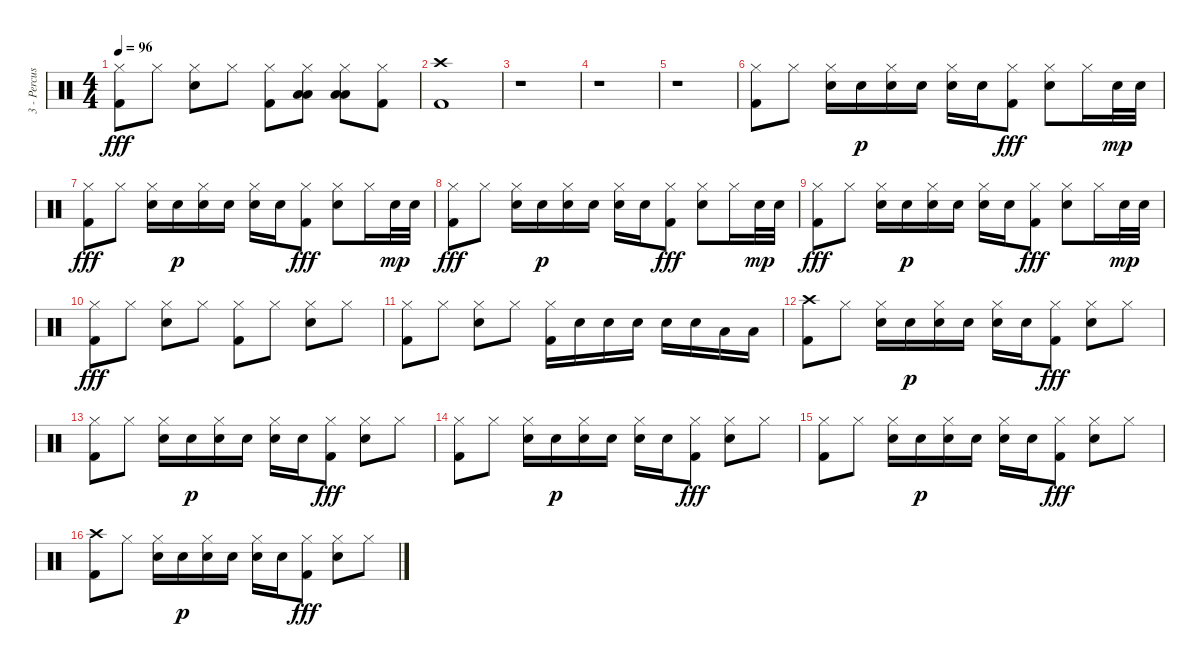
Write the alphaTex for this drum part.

\track ("3 - Percussion" "3 - Percus") {instrument percussion}
\staff {score}
\articulation defaults
\ts (4 4)
\tempo 96
\clef neutral
\ks c
("Hi-Hat (closed)" "Kick (hit) 2").8{dy fff} "Hi-Hat (closed)".8 ("Hi-Hat (closed)" "Snare (hit) 2").8 "Hi-Hat (closed)".8 ("Hi-Hat (closed)" "Kick (hit) 2").8 ("Hi-Hat (closed)" "Low Floor Tom (hit)" "Low Tom (hit)").8 ("Hi-Hat (closed)" "Low Floor Tom (hit)" "Low Tom (hit)").8 ("Hi-Hat (closed)" "Kick (hit) 2").8 |
("Crash high (hit)" "Kick (hit) 2").1 |
r.1 |
r.1 |
r.1 |
("Hi-Hat (closed)" "Kick (hit) 2").8 "Hi-Hat (closed)".8 ("Hi-Hat (closed)" "Snare (hit) 2").16 "Snare (hit) 2".16{dy p} ("Hi-Hat (closed)" "Snare (hit) 2").16 "Snare (hit) 2".16 ("Hi-Hat (closed)" "Snare (hit) 2").16 "Snare (hit) 2".16 ("Hi-Hat (closed)" "Kick (hit) 2").8{dy fff} ("Hi-Hat (closed)" "Snare (hit) 2").8 "Hi-Hat (closed)".16 "Snare (hit) 2".32{dy mp} "Snare (hit) 2".32 |
("Hi-Hat (closed)" "Kick (hit) 2").8{dy fff} "Hi-Hat (closed)".8 ("Hi-Hat (closed)" "Snare (hit) 2").16 "Snare (hit) 2".16{dy p} ("Hi-Hat (closed)" "Snare (hit) 2").16 "Snare (hit) 2".16 ("Hi-Hat (closed)" "Snare (hit) 2").16 "Snare (hit) 2".16 ("Hi-Hat (closed)" "Kick (hit) 2").8{dy fff} ("Hi-Hat (closed)" "Snare (hit) 2").8 "Hi-Hat (closed)".16 "Snare (hit) 2".32{dy mp} "Snare (hit) 2".32 |
("Hi-Hat (closed)" "Kick (hit) 2").8{dy fff} "Hi-Hat (closed)".8 ("Hi-Hat (closed)" "Snare (hit) 2").16 "Snare (hit) 2".16{dy p} ("Hi-Hat (closed)" "Snare (hit) 2").16 "Snare (hit) 2".16 ("Hi-Hat (closed)" "Snare (hit) 2").16 "Snare (hit) 2".16 ("Hi-Hat (closed)" "Kick (hit) 2").8{dy fff} ("Hi-Hat (closed)" "Snare (hit) 2").8 "Hi-Hat (closed)".16 "Snare (hit) 2".32{dy mp} "Snare (hit) 2".32 |
("Hi-Hat (closed)" "Kick (hit) 2").8{dy fff} "Hi-Hat (closed)".8 ("Hi-Hat (closed)" "Snare (hit) 2").16 "Snare (hit) 2".16{dy p} ("Hi-Hat (closed)" "Snare (hit) 2").16 "Snare (hit) 2".16 ("Hi-Hat (closed)" "Snare (hit) 2").16 "Snare (hit) 2".16 ("Hi-Hat (closed)" "Kick (hit) 2").8{dy fff} ("Hi-Hat (closed)" "Snare (hit) 2").8 "Hi-Hat (closed)".16 "Snare (hit) 2".32{dy mp} "Snare (hit) 2".32 |
("Hi-Hat (closed)" "Kick (hit) 2").8{dy fff} "Hi-Hat (closed)".8 ("Hi-Hat (closed)" "Snare (hit) 2").8 "Hi-Hat (closed)".8 ("Hi-Hat (closed)" "Kick (hit) 2").8 "Hi-Hat (closed)".8 ("Hi-Hat (closed)" "Snare (hit) 2").8 "Hi-Hat (closed)".8 |
("Hi-Hat (closed)" "Kick (hit) 2").8 "Hi-Hat (closed)".8 ("Hi-Hat (closed)" "Snare (hit) 2").8 "Hi-Hat (closed)".8 ("Hi-Hat (closed)" "Kick (hit) 2").16 "Snare (hit) 2".16 "Snare (hit) 2".16 "Snare (hit) 2".16 "Snare (hit) 2".16 "Snare (hit) 2".16 "Low Floor Tom (hit)".16 "Low Floor Tom (hit)".16 |
("Crash high (hit)" "Kick (hit) 2").8 "Hi-Hat (closed)".8 ("Hi-Hat (closed)" "Snare (hit) 2").16 "Snare (hit) 2".16{dy p} ("Hi-Hat (closed)" "Snare (hit) 2").16 "Snare (hit) 2".16 ("Hi-Hat (closed)" "Snare (hit) 2").16 "Snare (hit) 2".16 ("Hi-Hat (closed)" "Kick (hit) 2").8{dy fff} ("Hi-Hat (closed)" "Snare (hit) 2").8 "Hi-Hat (closed)".8 |
("Hi-Hat (closed)" "Kick (hit) 2").8 "Hi-Hat (closed)".8 ("Hi-Hat (closed)" "Snare (hit) 2").16 "Snare (hit) 2".16{dy p} ("Hi-Hat (closed)" "Snare (hit) 2").16 "Snare (hit) 2".16 ("Hi-Hat (closed)" "Snare (hit) 2").16 "Snare (hit) 2".16 ("Hi-Hat (closed)" "Kick (hit) 2").8{dy fff} ("Hi-Hat (closed)" "Snare (hit) 2").8 "Hi-Hat (closed)".8 |
("Hi-Hat (closed)" "Kick (hit) 2").8 "Hi-Hat (closed)".8 ("Hi-Hat (closed)" "Snare (hit) 2").16 "Snare (hit) 2".16{dy p} ("Hi-Hat (closed)" "Snare (hit) 2").16 "Snare (hit) 2".16 ("Hi-Hat (closed)" "Snare (hit) 2").16 "Snare (hit) 2".16 ("Hi-Hat (closed)" "Kick (hit) 2").8{dy fff} ("Hi-Hat (closed)" "Snare (hit) 2").8 "Hi-Hat (closed)".8 |
("Hi-Hat (closed)" "Kick (hit) 2").8 "Hi-Hat (closed)".8 ("Hi-Hat (closed)" "Snare (hit) 2").16 "Snare (hit) 2".16{dy p} ("Hi-Hat (closed)" "Snare (hit) 2").16 "Snare (hit) 2".16 ("Hi-Hat (closed)" "Snare (hit) 2").16 "Snare (hit) 2".16 ("Hi-Hat (closed)" "Kick (hit) 2").8{dy fff} ("Hi-Hat (closed)" "Snare (hit) 2").8 "Hi-Hat (closed)".8 |
("Crash high (hit)" "Kick (hit) 2").8 "Hi-Hat (closed)".8 ("Hi-Hat (closed)" "Snare (hit) 2").16 "Snare (hit) 2".16{dy p} ("Hi-Hat (closed)" "Snare (hit) 2").16 "Snare (hit) 2".16 ("Hi-Hat (closed)" "Snare (hit) 2").16 "Snare (hit) 2".16 ("Hi-Hat (closed)" "Kick (hit) 2").8{dy fff} ("Hi-Hat (closed)" "Snare (hit) 2").8 "Hi-Hat (closed)".8
